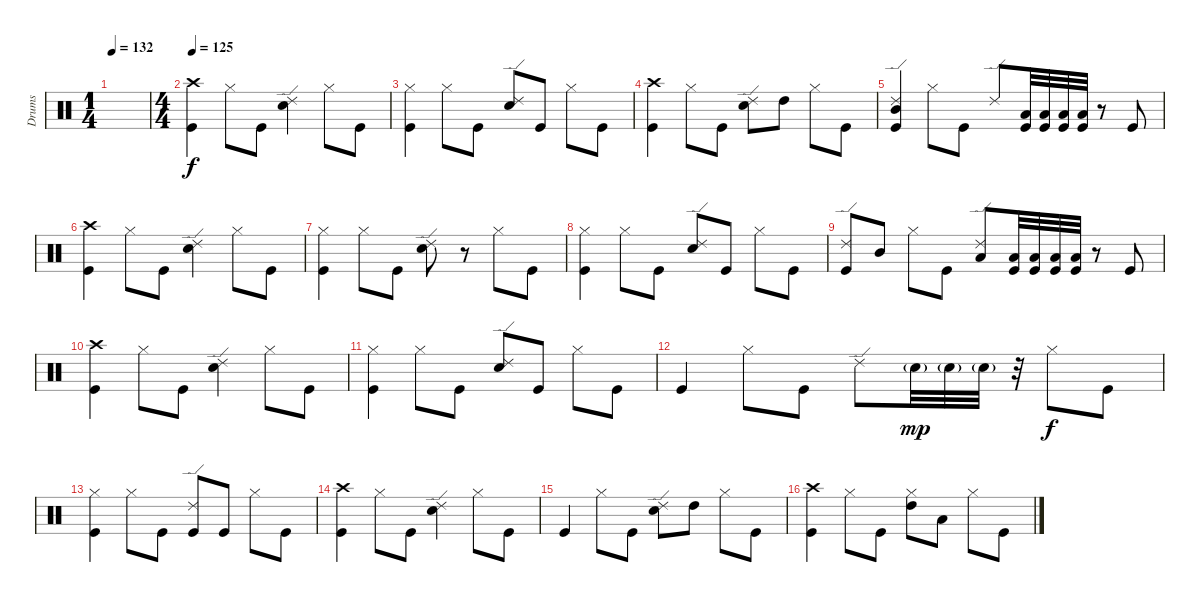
\track ("Drums" "Drums") {instrument percussion}
\staff {score}
\articulation defaults
\ts (1 4)
\tempo 132
\clef neutral
\ks c
|
\ts (4 4)
\tempo 125
("Crash high (hit)" "Kick (hit)").4 "Hi-Hat (closed)".8 "Kick (hit)".8 ("Ride (edge) 2" "Snare (hit) 2").4 "Hi-Hat (closed)".8 "Kick (hit)".8 |
("Hi-Hat (closed)" "Kick (hit)").4 "Hi-Hat (closed)".8 "Kick (hit)".8 ("Ride (edge) 2" "Snare (hit) 2").8 "Kick (hit)".8 "Hi-Hat (closed)".8 "Kick (hit)".8 |
("Crash high (hit)" "Kick (hit)").4 "Hi-Hat (closed)".8 "Kick (hit)".8 ("Ride (edge) 2" "Snare (hit) 2").8 "High Tom (hit)".8 "Hi-Hat (closed)".8 "Kick (hit)".8 |
("Ride (edge) 2" "Mid Tom (hit)" "Kick (hit)").4 "Hi-Hat (closed)".8 "Kick (hit)".8 "Ride (edge) 2".8 ("Low Tom (hit)" "Kick (hit)").32 ("Low Tom (hit)" "Kick (hit)").32 ("Low Tom (hit)" "Kick (hit)").32 ("Low Tom (hit)" "Kick (hit)").32 r.8 "Kick (hit)".8 |
("Crash high (hit)" "Kick (hit)").4 "Hi-Hat (closed)".8 "Kick (hit)".8 ("Ride (edge) 2" "Snare (hit) 2").4 "Hi-Hat (closed)".8 "Kick (hit)".8 |
("Hi-Hat (closed)" "Kick (hit)").4 "Hi-Hat (closed)".8 "Kick (hit)".8 ("Ride (edge) 2" "Snare (hit) 2").8 r.8 "Hi-Hat (closed)".8 "Kick (hit)".8 |
("Hi-Hat (closed)" "Kick (hit)").4 "Hi-Hat (closed)".8 "Kick (hit)".8 ("Ride (edge) 2" "Snare (hit) 2").8 "Kick (hit)".8 "Hi-Hat (closed)".8 "Kick (hit)".8 |
("Ride (edge) 2" "Kick (hit)").8 "Mid Tom (hit)".8 "Hi-Hat (closed)".8 "Kick (hit)".8 ("Ride (edge) 2" "Low Tom (hit)").8 ("Low Tom (hit)" "Kick (hit)").32 ("Low Tom (hit)" "Kick (hit)").32 ("Low Tom (hit)" "Kick (hit)").32 ("Low Tom (hit)" "Kick (hit)").32 r.8 "Kick (hit)".8 |
("Crash high (hit)" "Kick (hit)").4 "Hi-Hat (closed)".8 "Kick (hit)".8 ("Ride (edge) 2" "Snare (hit) 2").4 "Hi-Hat (closed)".8 "Kick (hit)".8 |
("Hi-Hat (closed)" "Kick (hit)").4 "Hi-Hat (closed)".8 "Kick (hit)".8 ("Ride (edge) 2" "Snare (hit) 2").8 "Kick (hit)".8 "Hi-Hat (closed)".8 "Kick (hit)".8 |
"Kick (hit)".4 "Hi-Hat (closed)".8 "Kick (hit)".8 "Ride (edge) 2".8 "Snare (hit) 2"{g}.32{dy mp} "Snare (hit) 2"{g}.32 "Snare (hit) 2"{g}.32 r.32 "Hi-Hat (closed)".8{dy f} "Kick (hit)".8 |
("Hi-Hat (closed)" "Kick (hit)").4 "Hi-Hat (closed)".8 "Kick (hit)".8 ("Ride (edge) 2" "Kick (hit)").8 "Kick (hit)".8 "Hi-Hat (closed)".8 "Kick (hit)".8 |
("Crash high (hit)" "Kick (hit)").4 "Hi-Hat (closed)".8 "Kick (hit)".8 ("Ride (edge) 2" "Snare (hit) 2").4 "Hi-Hat (closed)".8 "Kick (hit)".8 |
"Kick (hit)".4 "Hi-Hat (closed)".8 "Kick (hit)".8 ("Ride (edge) 2" "Snare (hit) 2").8 "High Tom (hit)".8 "Hi-Hat (closed)".8 "Kick (hit)".8 |
("Crash high (hit)" "Kick (hit)").4 "Hi-Hat (closed)".8 "Kick (hit)".8 ("Hi-Hat (closed)" "High Tom (hit)").8 "Low Tom (hit)".8 "Hi-Hat (closed)".8 "Kick (hit)".8
